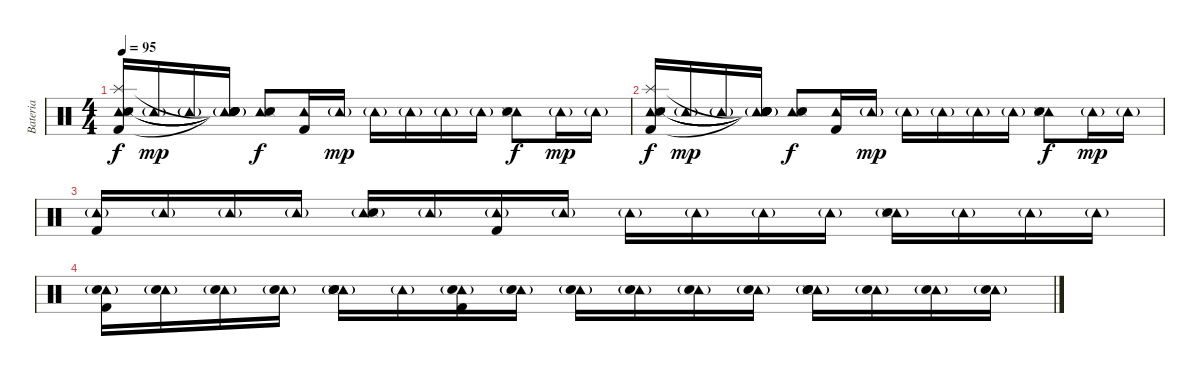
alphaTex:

\track ("Bateria" "Bateria") {instrument percussion}
\staff {score}
\articulation defaults
\ts (4 4)
\tempo 95
\clef neutral
\ks c
("Tambourine (hit)" "Snare (side stick) 3" "Snare (side stick) 3" "Snare (hit) 2" "Splash (hit)" "Kick (hit) 2").16{dy f volume 0} "Tambourine (hit)"{g}.16{dy mp} "Tambourine (hit)"{g}.16 ("Tambourine (hit)"{g} "Snare (hit)"{t} "Snare (hit)"{t} "Snare (hit)"{t} "Snare (hit)"{t} "Snare (hit)"{t}).16 ("Tambourine (hit)" "Snare (side stick) 3" "Snare (hit) 2").8{dy f} ("Tambourine (hit)" "Kick (hit) 2").16 "Tambourine (hit)"{g}.16{dy mp} "Tambourine (hit)"{g}.16 "Tambourine (hit)"{g}.16 "Tambourine (hit)"{g}.16 "Tambourine (hit)"{g}.16 ("Tambourine (hit)" "Snare (side stick) 3" "Snare (hit) 2").8{dy f} "Tambourine (hit)"{g}.16{dy mp} "Tambourine (hit)"{g}.16 |
("Tambourine (hit)" "Snare (side stick) 3" "Snare (side stick) 3" "Snare (hit) 2" "Splash (hit)" "Kick (hit) 2").16{dy f} "Tambourine (hit)"{g}.16{dy mp} "Tambourine (hit)"{g}.16 ("Tambourine (hit)"{g} "Snare (hit)"{t} "Snare (hit)"{t} "Snare (hit)"{t} "Snare (hit)"{t} "Snare (hit)"{t}).16 ("Tambourine (hit)" "Snare (side stick) 3" "Snare (hit) 2").8{dy f} ("Tambourine (hit)" "Kick (hit) 2").16 "Tambourine (hit)"{g}.16{dy mp} "Tambourine (hit)"{g}.16 "Tambourine (hit)"{g}.16 "Tambourine (hit)"{g}.16 "Tambourine (hit)"{g}.16 ("Tambourine (hit)" "Snare (side stick) 3" "Snare (hit) 2").8{dy f} "Tambourine (hit)"{g}.16{dy mp} "Tambourine (hit)"{g}.16 |
("Tambourine (hit)"{g} "Kick (hit) 2").16 "Tambourine (hit)"{g}.16 "Tambourine (hit)"{g}.16 "Tambourine (hit)"{g}.16 ("Tambourine (hit)"{g} "Snare (side stick) 3" "Snare (hit) 2").16 "Tambourine (hit)"{g}.16 ("Tambourine (hit)"{g} "Kick (hit) 2").16 "Tambourine (hit)"{g}.16 "Tambourine (hit)"{g}.16 "Tambourine (hit)"{g}.16 "Tambourine (hit)"{g}.16 "Tambourine (hit)"{g}.16 ("Tambourine (hit)"{g} "Snare (side stick) 3" "Snare (hit) 2").16 "Tambourine (hit)"{g}.16 "Tambourine (hit)"{g}.16 "Tambourine (hit)"{g}.16 |
("Tambourine (hit)"{g} "Hand Clap (hit)" "Kick (hit) 2").16 ("Tambourine (hit)"{g} "Hand Clap (hit)").16 ("Tambourine (hit)"{g} "Hand Clap (hit)").16 ("Tambourine (hit)"{g} "Hand Clap (hit)").16 ("Tambourine (hit)"{g} "Hand Clap (hit)" "Snare (side stick) 3" "Snare (hit) 2").16 "Tambourine (hit)"{g}.16 ("Tambourine (hit)"{g} "Hand Clap (hit)" "Kick (hit) 2").16 ("Tambourine (hit)"{g} "Hand Clap (hit)").16 ("Tambourine (hit)"{g} "Hand Clap (hit)").16 ("Tambourine (hit)"{g} "Hand Clap (hit)").16 ("Tambourine (hit)"{g} "Hand Clap (hit)").16 ("Tambourine (hit)"{g} "Hand Clap (hit)").16 ("Tambourine (hit)"{g} "Hand Clap (hit)" "Snare (side stick) 3" "Snare (hit) 2").16 ("Tambourine (hit)"{g} "Hand Clap (hit)").16 ("Tambourine (hit)"{g} "Hand Clap (hit)").16 ("Tambourine (hit)"{g} "Hand Clap (hit)").16
